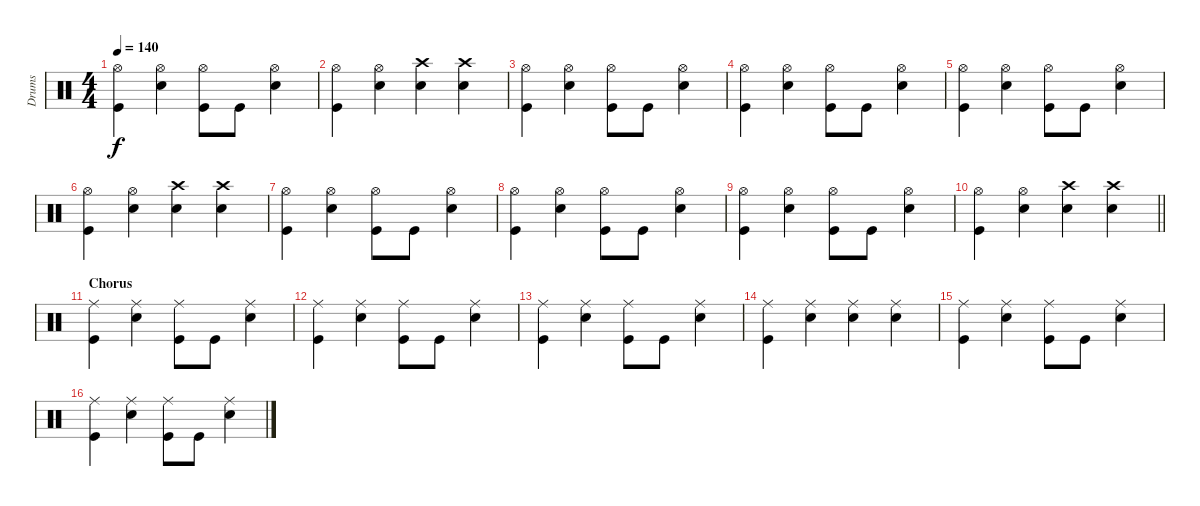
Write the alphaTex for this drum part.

\track ("Drums" "Drums") {instrument percussion}
\staff
\articulation defaults
\ts (4 4)
\tempo 140
\clef neutral
\ks c
("Kick (hit)" "Hi-Hat (open)").4{dy f} ("Snare (hit) 2" "Hi-Hat (open)").4 ("Kick (hit)" "Hi-Hat (open)").8 "Kick (hit)".8 ("Snare (hit) 2" "Hi-Hat (open)").4 |
("Kick (hit)" "Hi-Hat (open)").4 ("Snare (hit) 2" "Hi-Hat (open)").4 ("Snare (hit) 2" "Crash high (hit)").4 ("Snare (hit) 2" "Crash high (hit)").4 |
("Kick (hit)" "Hi-Hat (open)").4 ("Snare (hit) 2" "Hi-Hat (open)").4 ("Kick (hit)" "Hi-Hat (open)").8 "Kick (hit)".8 ("Snare (hit) 2" "Hi-Hat (open)").4 |
("Kick (hit)" "Hi-Hat (open)").4 ("Snare (hit) 2" "Hi-Hat (open)").4 ("Kick (hit)" "Hi-Hat (open)").8 "Kick (hit)".8 ("Snare (hit) 2" "Hi-Hat (open)").4 |
("Kick (hit)" "Hi-Hat (open)").4 ("Snare (hit) 2" "Hi-Hat (open)").4 ("Kick (hit)" "Hi-Hat (open)").8 "Kick (hit)".8 ("Snare (hit) 2" "Hi-Hat (open)").4 |
("Kick (hit)" "Hi-Hat (open)").4 ("Snare (hit) 2" "Hi-Hat (open)").4 ("Snare (hit) 2" "Crash high (hit)").4 ("Snare (hit) 2" "Crash high (hit)").4 |
("Kick (hit)" "Hi-Hat (open)").4 ("Snare (hit) 2" "Hi-Hat (open)").4 ("Kick (hit)" "Hi-Hat (open)").8 "Kick (hit)".8 ("Snare (hit) 2" "Hi-Hat (open)").4 |
("Kick (hit)" "Hi-Hat (open)").4 ("Snare (hit) 2" "Hi-Hat (open)").4 ("Kick (hit)" "Hi-Hat (open)").8 "Kick (hit)".8 ("Snare (hit) 2" "Hi-Hat (open)").4 |
("Kick (hit)" "Hi-Hat (open)").4 ("Snare (hit) 2" "Hi-Hat (open)").4 ("Kick (hit)" "Hi-Hat (open)").8 "Kick (hit)".8 ("Snare (hit) 2" "Hi-Hat (open)").4 |
\barLineRight lightlight
("Kick (hit)" "Hi-Hat (open)").4 ("Snare (hit) 2" "Hi-Hat (open)").4 ("Snare (hit) 2" "Crash high (hit)").4 ("Snare (hit) 2" "Crash high (hit)").4 |
\section ("" "Chorus")
("Kick (hit)" "Ride (middle)").4 ("Snare (hit) 2" "Ride (middle)").4 ("Kick (hit)" "Ride (middle)").8 "Kick (hit)".8 ("Snare (hit) 2" "Ride (middle)").4 |
("Kick (hit)" "Ride (middle)").4 ("Snare (hit) 2" "Ride (middle)").4 ("Kick (hit)" "Ride (middle)").8 "Kick (hit)".8 ("Snare (hit) 2" "Ride (middle)").4 |
("Kick (hit)" "Ride (middle)").4 ("Snare (hit) 2" "Ride (middle)").4 ("Kick (hit)" "Ride (middle)").8 "Kick (hit)".8 ("Snare (hit) 2" "Ride (middle)").4 |
("Kick (hit)" "Ride (middle)").4 ("Snare (hit) 2" "Ride (middle)").4 ("Snare (hit) 2" "Ride (middle)").4 ("Snare (hit) 2" "Ride (middle)").4 |
("Kick (hit)" "Ride (middle)").4 ("Snare (hit) 2" "Ride (middle)").4 ("Kick (hit)" "Ride (middle)").8 "Kick (hit)".8 ("Snare (hit) 2" "Ride (middle)").4 |
("Kick (hit)" "Ride (middle)").4 ("Snare (hit) 2" "Ride (middle)").4 ("Kick (hit)" "Ride (middle)").8 "Kick (hit)".8 ("Snare (hit) 2" "Ride (middle)").4
